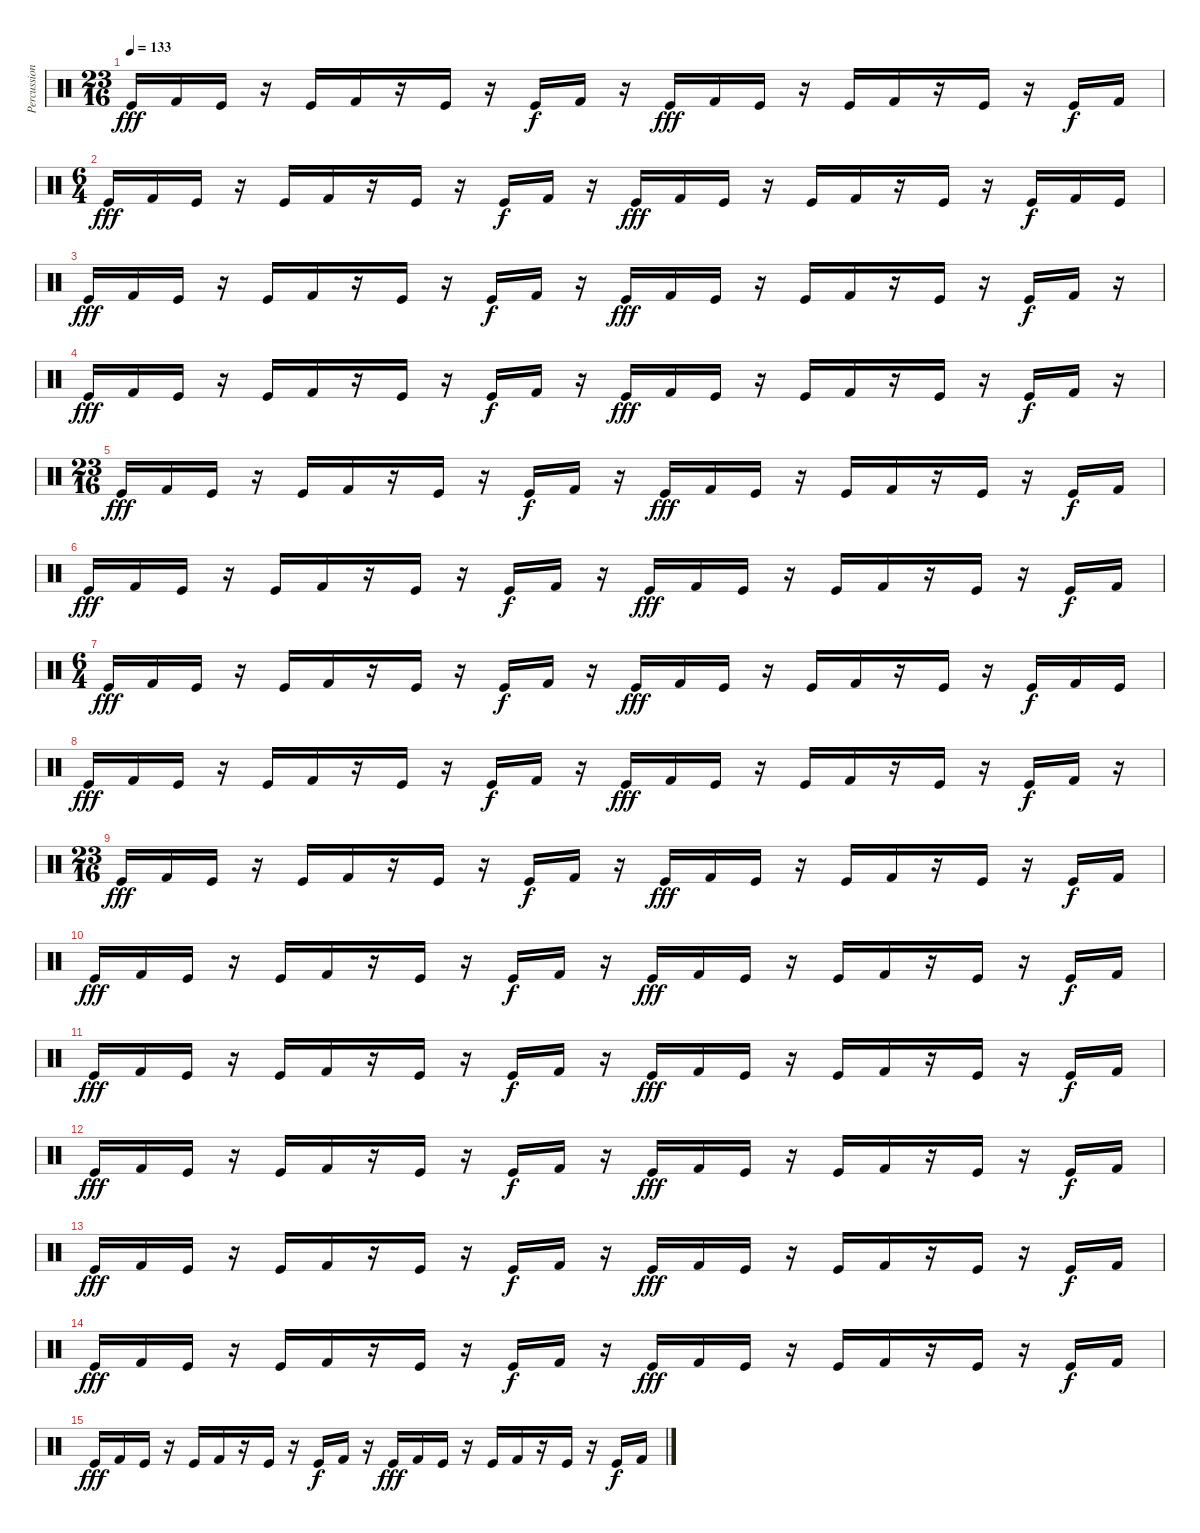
\track ("Percussion" "Percussion") {instrument percussion}
\staff {score}
\articulation defaults
\ts (23 16)
\tempo 133
\clef neutral
\ks c "Kick (hit)".16{dy fff} "Kick (hit) 2".16 "Kick (hit)".16
r.16 "Kick (hit)".16 "Kick (hit) 2".16 r.16 "Kick (hit)".16 r.16 "Kick (hit)".16{dy f} "Kick (hit) 2".16 r.16 "Kick (hit)".16{dy fff} "Kick (hit) 2".16 "Kick (hit)".16 r.16 "Kick (hit)".16 "Kick (hit) 2".16 r.16 "Kick (hit)".16 r.16 "Kick (hit)".16{dy f} "Kick (hit) 2".16 |
\ts (6 4)
"Kick (hit)".16{dy fff} "Kick (hit) 2".16 "Kick (hit)".16 r.16 "Kick (hit)".16 "Kick (hit) 2".16 r.16 "Kick (hit)".16 r.16 "Kick (hit)".16{dy f} "Kick (hit) 2".16 r.16 "Kick (hit)".16{dy fff} "Kick (hit) 2".16 "Kick (hit)".16 r.16 "Kick (hit)".16 "Kick (hit) 2".16 r.16 "Kick (hit)".16 r.16 "Kick (hit)".16{dy f} "Kick (hit) 2".16 "Kick (hit)".16 |
"Kick (hit)".16{dy fff} "Kick (hit) 2".16 "Kick (hit)".16 r.16 "Kick (hit)".16 "Kick (hit) 2".16 r.16 "Kick (hit)".16 r.16 "Kick (hit)".16{dy f} "Kick (hit) 2".16 r.16 "Kick (hit)".16{dy fff} "Kick (hit) 2".16 "Kick (hit)".16 r.16 "Kick (hit)".16 "Kick (hit) 2".16 r.16 "Kick (hit)".16 r.16 "Kick (hit)".16{dy f} "Kick (hit) 2".16 r.16 |
"Kick (hit)".16{dy fff} "Kick (hit) 2".16 "Kick (hit)".16 r.16 "Kick (hit)".16 "Kick (hit) 2".16 r.16 "Kick (hit)".16 r.16 "Kick (hit)".16{dy f} "Kick (hit) 2".16 r.16 "Kick (hit)".16{dy fff} "Kick (hit) 2".16 "Kick (hit)".16 r.16 "Kick (hit)".16 "Kick (hit) 2".16 r.16 "Kick (hit)".16 r.16 "Kick (hit)".16{dy f} "Kick (hit) 2".16 r.16 |
\ts (23 16)
"Kick (hit)".16{dy fff} "Kick (hit) 2".16 "Kick (hit)".16 r.16 "Kick (hit)".16 "Kick (hit) 2".16 r.16 "Kick (hit)".16 r.16 "Kick (hit)".16{dy f} "Kick (hit) 2".16 r.16 "Kick (hit)".16{dy fff} "Kick (hit) 2".16 "Kick (hit)".16 r.16 "Kick (hit)".16 "Kick (hit) 2".16 r.16 "Kick (hit)".16 r.16 "Kick (hit)".16{dy f} "Kick (hit) 2".16 |
"Kick (hit)".16{dy fff} "Kick (hit) 2".16 "Kick (hit)".16 r.16 "Kick (hit)".16 "Kick (hit) 2".16 r.16 "Kick (hit)".16 r.16 "Kick (hit)".16{dy f} "Kick (hit) 2".16 r.16 "Kick (hit)".16{dy fff} "Kick (hit) 2".16 "Kick (hit)".16 r.16 "Kick (hit)".16 "Kick (hit) 2".16 r.16 "Kick (hit)".16 r.16 "Kick (hit)".16{dy f} "Kick (hit) 2".16 |
\ts (6 4)
"Kick (hit)".16{dy fff} "Kick (hit) 2".16 "Kick (hit)".16 r.16 "Kick (hit)".16 "Kick (hit) 2".16 r.16 "Kick (hit)".16 r.16 "Kick (hit)".16{dy f} "Kick (hit) 2".16 r.16 "Kick (hit)".16{dy fff} "Kick (hit) 2".16 "Kick (hit)".16 r.16 "Kick (hit)".16 "Kick (hit) 2".16 r.16 "Kick (hit)".16 r.16 "Kick (hit)".16{dy f} "Kick (hit) 2".16 "Kick (hit)".16 |
"Kick (hit)".16{dy fff} "Kick (hit) 2".16 "Kick (hit)".16 r.16 "Kick (hit)".16 "Kick (hit) 2".16 r.16 "Kick (hit)".16 r.16 "Kick (hit)".16{dy f} "Kick (hit) 2".16 r.16 "Kick (hit)".16{dy fff} "Kick (hit) 2".16 "Kick (hit)".16 r.16 "Kick (hit)".16 "Kick (hit) 2".16 r.16 "Kick (hit)".16 r.16 "Kick (hit)".16{dy f} "Kick (hit) 2".16 r.16 |
\ts (23 16)
"Kick (hit)".16{dy fff} "Kick (hit) 2".16 "Kick (hit)".16 r.16 "Kick (hit)".16 "Kick (hit) 2".16 r.16 "Kick (hit)".16 r.16 "Kick (hit)".16{dy f} "Kick (hit) 2".16 r.16 "Kick (hit)".16{dy fff} "Kick (hit) 2".16 "Kick (hit)".16 r.16 "Kick (hit)".16 "Kick (hit) 2".16 r.16 "Kick (hit)".16 r.16 "Kick (hit)".16{dy f} "Kick (hit) 2".16 |
"Kick (hit)".16{dy fff} "Kick (hit) 2".16 "Kick (hit)".16 r.16 "Kick (hit)".16 "Kick (hit) 2".16 r.16 "Kick (hit)".16 r.16 "Kick (hit)".16{dy f} "Kick (hit) 2".16 r.16 "Kick (hit)".16{dy fff} "Kick (hit) 2".16 "Kick (hit)".16 r.16 "Kick (hit)".16 "Kick (hit) 2".16 r.16 "Kick (hit)".16 r.16 "Kick (hit)".16{dy f} "Kick (hit) 2".16 |
"Kick (hit)".16{dy fff} "Kick (hit) 2".16 "Kick (hit)".16 r.16 "Kick (hit)".16 "Kick (hit) 2".16 r.16 "Kick (hit)".16 r.16 "Kick (hit)".16{dy f} "Kick (hit) 2".16 r.16 "Kick (hit)".16{dy fff} "Kick (hit) 2".16 "Kick (hit)".16 r.16 "Kick (hit)".16 "Kick (hit) 2".16 r.16 "Kick (hit)".16 r.16 "Kick (hit)".16{dy f} "Kick (hit) 2".16 |
"Kick (hit)".16{dy fff} "Kick (hit) 2".16 "Kick (hit)".16 r.16 "Kick (hit)".16 "Kick (hit) 2".16 r.16 "Kick (hit)".16 r.16 "Kick (hit)".16{dy f} "Kick (hit) 2".16 r.16 "Kick (hit)".16{dy fff} "Kick (hit) 2".16 "Kick (hit)".16 r.16 "Kick (hit)".16 "Kick (hit) 2".16 r.16 "Kick (hit)".16 r.16 "Kick (hit)".16{dy f} "Kick (hit) 2".16 |
"Kick (hit)".16{dy fff} "Kick (hit) 2".16 "Kick (hit)".16 r.16 "Kick (hit)".16 "Kick (hit) 2".16 r.16 "Kick (hit)".16 r.16 "Kick (hit)".16{dy f} "Kick (hit) 2".16 r.16 "Kick (hit)".16{dy fff} "Kick (hit) 2".16 "Kick (hit)".16 r.16 "Kick (hit)".16 "Kick (hit) 2".16 r.16 "Kick (hit)".16 r.16 "Kick (hit)".16{dy f} "Kick (hit) 2".16 |
"Kick (hit)".16{dy fff} "Kick (hit) 2".16 "Kick (hit)".16 r.16 "Kick (hit)".16 "Kick (hit) 2".16 r.16 "Kick (hit)".16 r.16 "Kick (hit)".16{dy f} "Kick (hit) 2".16 r.16 "Kick (hit)".16{dy fff} "Kick (hit) 2".16 "Kick (hit)".16 r.16 "Kick (hit)".16 "Kick (hit) 2".16 r.16 "Kick (hit)".16 r.16 "Kick (hit)".16{dy f} "Kick (hit) 2".16 |
"Kick (hit)".16{dy fff} "Kick (hit) 2".16 "Kick (hit)".16 r.16 "Kick (hit)".16 "Kick (hit) 2".16 r.16 "Kick (hit)".16 r.16 "Kick (hit)".16{dy f} "Kick (hit) 2".16 r.16 "Kick (hit)".16{dy fff} "Kick (hit) 2".16 "Kick (hit)".16 r.16 "Kick (hit)".16 "Kick (hit) 2".16 r.16 "Kick (hit)".16 r.16 "Kick (hit)".16{dy f} "Kick (hit) 2".16
